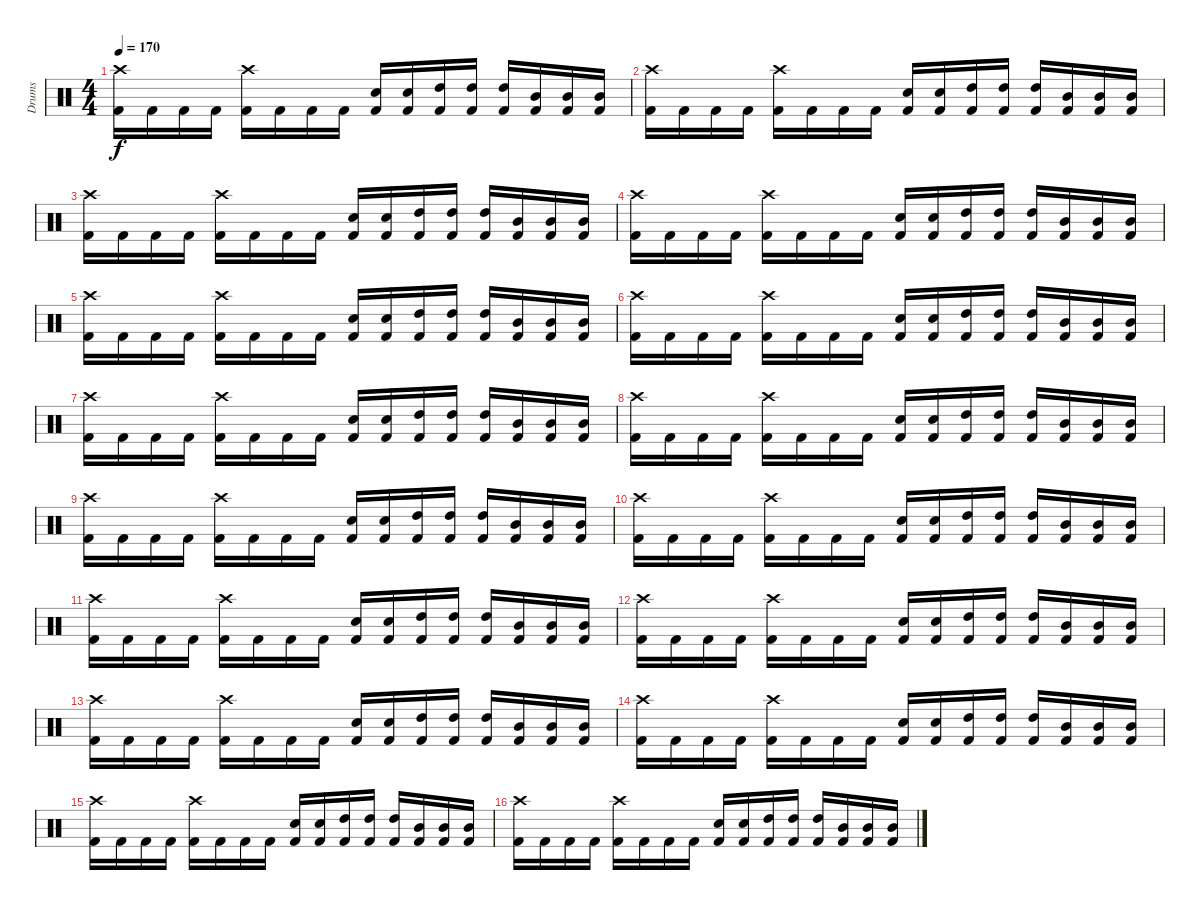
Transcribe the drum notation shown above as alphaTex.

\track ("Drums" "Drums") {instrument percussion}
\staff {score}
\articulation defaults
\ts (4 4)
\tempo 170
\clef neutral
\ks c
("Crash high (hit)" "Kick (hit) 2").16{dy f} "Kick (hit) 2".16 "Kick (hit) 2".16 "Kick (hit) 2".16 ("Crash high (hit)" "Kick (hit) 2").16 "Kick (hit) 2".16 "Kick (hit) 2".16 "Kick (hit) 2".16 ("Snare (hit) 2" "Kick (hit) 2").16 ("Snare (hit) 2" "Kick (hit) 2").16 ("High Tom (hit)" "Kick (hit) 2").16 ("High Tom (hit)" "Kick (hit) 2").16 ("High Tom (hit)" "Kick (hit) 2").16 ("Mid Tom (hit)" "Kick (hit) 2").16 ("Mid Tom (hit)" "Kick (hit) 2").16 ("Mid Tom (hit)" "Kick (hit) 2").16 |
("Crash high (hit)" "Kick (hit) 2").16 "Kick (hit) 2".16 "Kick (hit) 2".16 "Kick (hit) 2".16 ("Crash high (hit)" "Kick (hit) 2").16 "Kick (hit) 2".16 "Kick (hit) 2".16 "Kick (hit) 2".16 ("Snare (hit) 2" "Kick (hit) 2").16 ("Snare (hit) 2" "Kick (hit) 2").16 ("High Tom (hit)" "Kick (hit) 2").16 ("High Tom (hit)" "Kick (hit) 2").16 ("High Tom (hit)" "Kick (hit) 2").16 ("Mid Tom (hit)" "Kick (hit) 2").16 ("Mid Tom (hit)" "Kick (hit) 2").16 ("Mid Tom (hit)" "Kick (hit) 2").16 |
("Crash high (hit)" "Kick (hit) 2").16 "Kick (hit) 2".16 "Kick (hit) 2".16 "Kick (hit) 2".16 ("Crash high (hit)" "Kick (hit) 2").16 "Kick (hit) 2".16 "Kick (hit) 2".16 "Kick (hit) 2".16 ("Snare (hit) 2" "Kick (hit) 2").16 ("Snare (hit) 2" "Kick (hit) 2").16 ("High Tom (hit)" "Kick (hit) 2").16 ("High Tom (hit)" "Kick (hit) 2").16 ("High Tom (hit)" "Kick (hit) 2").16 ("Mid Tom (hit)" "Kick (hit) 2").16 ("Mid Tom (hit)" "Kick (hit) 2").16 ("Mid Tom (hit)" "Kick (hit) 2").16 |
("Crash high (hit)" "Kick (hit) 2").16 "Kick (hit) 2".16 "Kick (hit) 2".16 "Kick (hit) 2".16 ("Crash high (hit)" "Kick (hit) 2").16 "Kick (hit) 2".16 "Kick (hit) 2".16 "Kick (hit) 2".16 ("Snare (hit) 2" "Kick (hit) 2").16 ("Snare (hit) 2" "Kick (hit) 2").16 ("High Tom (hit)" "Kick (hit) 2").16 ("High Tom (hit)" "Kick (hit) 2").16 ("High Tom (hit)" "Kick (hit) 2").16 ("Mid Tom (hit)" "Kick (hit) 2").16 ("Mid Tom (hit)" "Kick (hit) 2").16 ("Mid Tom (hit)" "Kick (hit) 2").16 |
("Crash high (hit)" "Kick (hit) 2").16 "Kick (hit) 2".16 "Kick (hit) 2".16 "Kick (hit) 2".16 ("Crash high (hit)" "Kick (hit) 2").16 "Kick (hit) 2".16 "Kick (hit) 2".16 "Kick (hit) 2".16 ("Snare (hit) 2" "Kick (hit) 2").16 ("Snare (hit) 2" "Kick (hit) 2").16 ("High Tom (hit)" "Kick (hit) 2").16 ("High Tom (hit)" "Kick (hit) 2").16 ("High Tom (hit)" "Kick (hit) 2").16 ("Mid Tom (hit)" "Kick (hit) 2").16 ("Mid Tom (hit)" "Kick (hit) 2").16 ("Mid Tom (hit)" "Kick (hit) 2").16 |
("Crash high (hit)" "Kick (hit) 2").16 "Kick (hit) 2".16 "Kick (hit) 2".16 "Kick (hit) 2".16 ("Crash high (hit)" "Kick (hit) 2").16 "Kick (hit) 2".16 "Kick (hit) 2".16 "Kick (hit) 2".16 ("Snare (hit) 2" "Kick (hit) 2").16 ("Snare (hit) 2" "Kick (hit) 2").16 ("High Tom (hit)" "Kick (hit) 2").16 ("High Tom (hit)" "Kick (hit) 2").16 ("High Tom (hit)" "Kick (hit) 2").16 ("Mid Tom (hit)" "Kick (hit) 2").16 ("Mid Tom (hit)" "Kick (hit) 2").16 ("Mid Tom (hit)" "Kick (hit) 2").16 |
("Crash high (hit)" "Kick (hit) 2").16 "Kick (hit) 2".16 "Kick (hit) 2".16 "Kick (hit) 2".16 ("Crash high (hit)" "Kick (hit) 2").16 "Kick (hit) 2".16 "Kick (hit) 2".16 "Kick (hit) 2".16 ("Snare (hit) 2" "Kick (hit) 2").16 ("Snare (hit) 2" "Kick (hit) 2").16 ("High Tom (hit)" "Kick (hit) 2").16 ("High Tom (hit)" "Kick (hit) 2").16 ("High Tom (hit)" "Kick (hit) 2").16 ("Mid Tom (hit)" "Kick (hit) 2").16 ("Mid Tom (hit)" "Kick (hit) 2").16 ("Mid Tom (hit)" "Kick (hit) 2").16 |
("Crash high (hit)" "Kick (hit) 2").16 "Kick (hit) 2".16 "Kick (hit) 2".16 "Kick (hit) 2".16 ("Crash high (hit)" "Kick (hit) 2").16 "Kick (hit) 2".16 "Kick (hit) 2".16 "Kick (hit) 2".16 ("Snare (hit) 2" "Kick (hit) 2").16 ("Snare (hit) 2" "Kick (hit) 2").16 ("High Tom (hit)" "Kick (hit) 2").16 ("High Tom (hit)" "Kick (hit) 2").16 ("High Tom (hit)" "Kick (hit) 2").16 ("Mid Tom (hit)" "Kick (hit) 2").16 ("Mid Tom (hit)" "Kick (hit) 2").16 ("Mid Tom (hit)" "Kick (hit) 2").16 |
("Crash high (hit)" "Kick (hit) 2").16 "Kick (hit) 2".16 "Kick (hit) 2".16 "Kick (hit) 2".16 ("Crash high (hit)" "Kick (hit) 2").16 "Kick (hit) 2".16 "Kick (hit) 2".16 "Kick (hit) 2".16 ("Snare (hit) 2" "Kick (hit) 2").16 ("Snare (hit) 2" "Kick (hit) 2").16 ("High Tom (hit)" "Kick (hit) 2").16 ("High Tom (hit)" "Kick (hit) 2").16 ("High Tom (hit)" "Kick (hit) 2").16 ("Mid Tom (hit)" "Kick (hit) 2").16 ("Mid Tom (hit)" "Kick (hit) 2").16 ("Mid Tom (hit)" "Kick (hit) 2").16 |
("Crash high (hit)" "Kick (hit) 2").16 "Kick (hit) 2".16 "Kick (hit) 2".16 "Kick (hit) 2".16 ("Crash high (hit)" "Kick (hit) 2").16 "Kick (hit) 2".16 "Kick (hit) 2".16 "Kick (hit) 2".16 ("Snare (hit) 2" "Kick (hit) 2").16 ("Snare (hit) 2" "Kick (hit) 2").16 ("High Tom (hit)" "Kick (hit) 2").16 ("High Tom (hit)" "Kick (hit) 2").16 ("High Tom (hit)" "Kick (hit) 2").16 ("Mid Tom (hit)" "Kick (hit) 2").16 ("Mid Tom (hit)" "Kick (hit) 2").16 ("Mid Tom (hit)" "Kick (hit) 2").16 |
("Crash high (hit)" "Kick (hit) 2").16 "Kick (hit) 2".16 "Kick (hit) 2".16 "Kick (hit) 2".16 ("Crash high (hit)" "Kick (hit) 2").16 "Kick (hit) 2".16 "Kick (hit) 2".16 "Kick (hit) 2".16 ("Snare (hit) 2" "Kick (hit) 2").16 ("Snare (hit) 2" "Kick (hit) 2").16 ("High Tom (hit)" "Kick (hit) 2").16 ("High Tom (hit)" "Kick (hit) 2").16 ("High Tom (hit)" "Kick (hit) 2").16 ("Mid Tom (hit)" "Kick (hit) 2").16 ("Mid Tom (hit)" "Kick (hit) 2").16 ("Mid Tom (hit)" "Kick (hit) 2").16 |
("Crash high (hit)" "Kick (hit) 2").16 "Kick (hit) 2".16 "Kick (hit) 2".16 "Kick (hit) 2".16 ("Crash high (hit)" "Kick (hit) 2").16 "Kick (hit) 2".16 "Kick (hit) 2".16 "Kick (hit) 2".16 ("Snare (hit) 2" "Kick (hit) 2").16 ("Snare (hit) 2" "Kick (hit) 2").16 ("High Tom (hit)" "Kick (hit) 2").16 ("High Tom (hit)" "Kick (hit) 2").16 ("High Tom (hit)" "Kick (hit) 2").16 ("Mid Tom (hit)" "Kick (hit) 2").16 ("Mid Tom (hit)" "Kick (hit) 2").16 ("Mid Tom (hit)" "Kick (hit) 2").16 |
("Crash high (hit)" "Kick (hit) 2").16 "Kick (hit) 2".16 "Kick (hit) 2".16 "Kick (hit) 2".16 ("Crash high (hit)" "Kick (hit) 2").16 "Kick (hit) 2".16 "Kick (hit) 2".16 "Kick (hit) 2".16 ("Snare (hit) 2" "Kick (hit) 2").16 ("Snare (hit) 2" "Kick (hit) 2").16 ("High Tom (hit)" "Kick (hit) 2").16 ("High Tom (hit)" "Kick (hit) 2").16 ("High Tom (hit)" "Kick (hit) 2").16 ("Mid Tom (hit)" "Kick (hit) 2").16 ("Mid Tom (hit)" "Kick (hit) 2").16 ("Mid Tom (hit)" "Kick (hit) 2").16 |
("Crash high (hit)" "Kick (hit) 2").16 "Kick (hit) 2".16 "Kick (hit) 2".16 "Kick (hit) 2".16 ("Crash high (hit)" "Kick (hit) 2").16 "Kick (hit) 2".16 "Kick (hit) 2".16 "Kick (hit) 2".16 ("Snare (hit) 2" "Kick (hit) 2").16 ("Snare (hit) 2" "Kick (hit) 2").16 ("High Tom (hit)" "Kick (hit) 2").16 ("High Tom (hit)" "Kick (hit) 2").16 ("High Tom (hit)" "Kick (hit) 2").16 ("Mid Tom (hit)" "Kick (hit) 2").16 ("Mid Tom (hit)" "Kick (hit) 2").16 ("Mid Tom (hit)" "Kick (hit) 2").16 |
("Crash high (hit)" "Kick (hit) 2").16 "Kick (hit) 2".16 "Kick (hit) 2".16 "Kick (hit) 2".16 ("Crash high (hit)" "Kick (hit) 2").16 "Kick (hit) 2".16 "Kick (hit) 2".16 "Kick (hit) 2".16 ("Snare (hit) 2" "Kick (hit) 2").16 ("Snare (hit) 2" "Kick (hit) 2").16 ("High Tom (hit)" "Kick (hit) 2").16 ("High Tom (hit)" "Kick (hit) 2").16 ("High Tom (hit)" "Kick (hit) 2").16 ("Mid Tom (hit)" "Kick (hit) 2").16 ("Mid Tom (hit)" "Kick (hit) 2").16 ("Mid Tom (hit)" "Kick (hit) 2").16 |
("Crash high (hit)" "Kick (hit) 2").16 "Kick (hit) 2".16 "Kick (hit) 2".16 "Kick (hit) 2".16 ("Crash high (hit)" "Kick (hit) 2").16 "Kick (hit) 2".16 "Kick (hit) 2".16 "Kick (hit) 2".16 ("Snare (hit) 2" "Kick (hit) 2").16 ("Snare (hit) 2" "Kick (hit) 2").16 ("High Tom (hit)" "Kick (hit) 2").16 ("High Tom (hit)" "Kick (hit) 2").16 ("High Tom (hit)" "Kick (hit) 2").16 ("Mid Tom (hit)" "Kick (hit) 2").16 ("Mid Tom (hit)" "Kick (hit) 2").16 ("Mid Tom (hit)" "Kick (hit) 2").16
